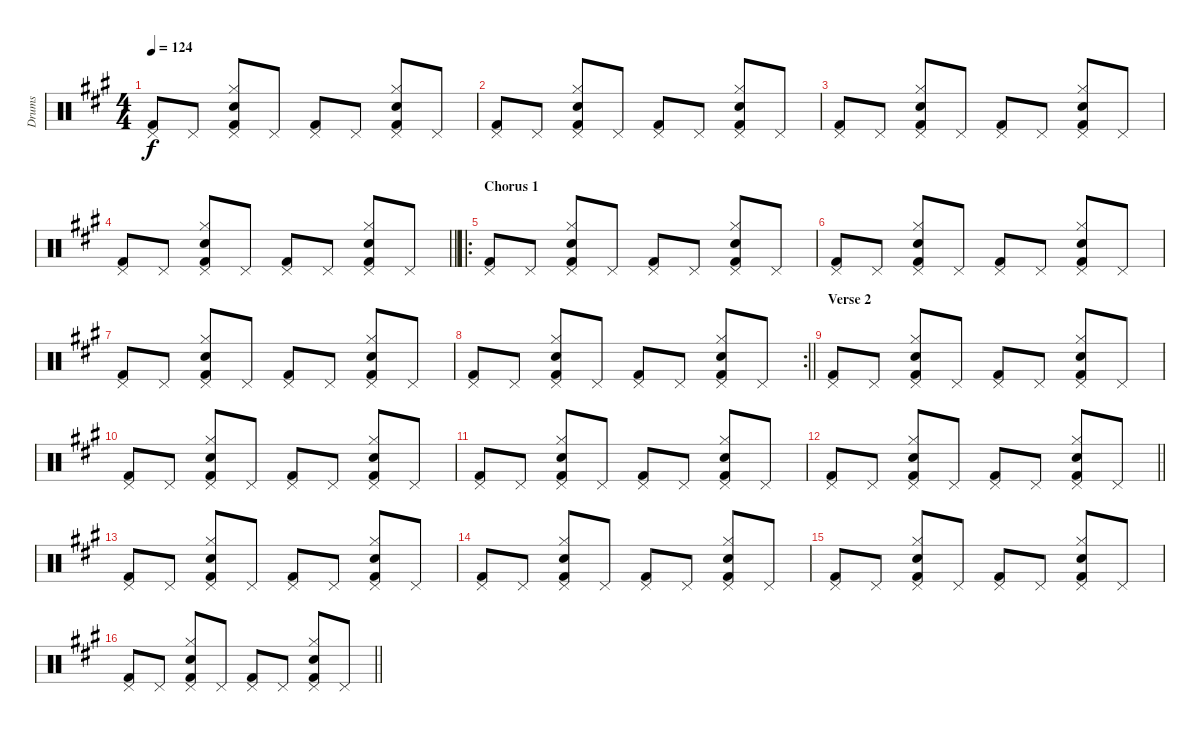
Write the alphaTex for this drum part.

\track ("Drums" "Drums") {instrument percussion}
\staff {score}
\articulation defaults
\ts (4 4)
\tempo 124
\clef neutral
\ks a
("Pedal Hi-Hat (hit)" "Kick (hit) 2").8{dy f} "Pedal Hi-Hat (hit)".8 ("Hi-Hat (closed)" "Snare (hit) 2" "Pedal Hi-Hat (hit)" "Kick (hit) 2").8 "Pedal Hi-Hat (hit)".8 ("Pedal Hi-Hat (hit)" "Kick (hit) 2").8 "Pedal Hi-Hat (hit)".8 ("Hi-Hat (closed)" "Snare (hit) 2" "Pedal Hi-Hat (hit)" "Kick (hit) 2").8 "Pedal Hi-Hat (hit)".8 |
("Pedal Hi-Hat (hit)" "Kick (hit) 2").8 "Pedal Hi-Hat (hit)".8 ("Hi-Hat (closed)" "Snare (hit) 2" "Pedal Hi-Hat (hit)" "Kick (hit) 2").8 "Pedal Hi-Hat (hit)".8 ("Pedal Hi-Hat (hit)" "Kick (hit) 2").8 "Pedal Hi-Hat (hit)".8 ("Hi-Hat (closed)" "Snare (hit) 2" "Pedal Hi-Hat (hit)" "Kick (hit) 2").8 "Pedal Hi-Hat (hit)".8 |
("Pedal Hi-Hat (hit)" "Kick (hit) 2").8 "Pedal Hi-Hat (hit)".8 ("Hi-Hat (closed)" "Snare (hit) 2" "Pedal Hi-Hat (hit)" "Kick (hit) 2").8 "Pedal Hi-Hat (hit)".8 ("Pedal Hi-Hat (hit)" "Kick (hit) 2").8 "Pedal Hi-Hat (hit)".8 ("Hi-Hat (closed)" "Snare (hit) 2" "Pedal Hi-Hat (hit)" "Kick (hit) 2").8 "Pedal Hi-Hat (hit)".8 |
\barLineRight lightlight
("Pedal Hi-Hat (hit)" "Kick (hit) 2").8 "Pedal Hi-Hat (hit)".8 ("Hi-Hat (closed)" "Snare (hit) 2" "Pedal Hi-Hat (hit)" "Kick (hit) 2").8 "Pedal Hi-Hat (hit)".8 ("Pedal Hi-Hat (hit)" "Kick (hit) 2").8 "Pedal Hi-Hat (hit)".8 ("Hi-Hat (closed)" "Snare (hit) 2" "Pedal Hi-Hat (hit)" "Kick (hit) 2").8 "Pedal Hi-Hat (hit)".8 |
\ro
\section ("" "Chorus 1")
("Pedal Hi-Hat (hit)" "Kick (hit) 2").8 "Pedal Hi-Hat (hit)".8 ("Hi-Hat (closed)" "Snare (hit) 2" "Pedal Hi-Hat (hit)" "Kick (hit) 2").8 "Pedal Hi-Hat (hit)".8 ("Pedal Hi-Hat (hit)" "Kick (hit) 2").8 "Pedal Hi-Hat (hit)".8 ("Hi-Hat (closed)" "Snare (hit) 2" "Pedal Hi-Hat (hit)" "Kick (hit) 2").8 "Pedal Hi-Hat (hit)".8 |
("Pedal Hi-Hat (hit)" "Kick (hit) 2").8 "Pedal Hi-Hat (hit)".8 ("Hi-Hat (closed)" "Snare (hit) 2" "Pedal Hi-Hat (hit)" "Kick (hit) 2").8 "Pedal Hi-Hat (hit)".8 ("Pedal Hi-Hat (hit)" "Kick (hit) 2").8 "Pedal Hi-Hat (hit)".8 ("Hi-Hat (closed)" "Snare (hit) 2" "Pedal Hi-Hat (hit)" "Kick (hit) 2").8 "Pedal Hi-Hat (hit)".8 |
("Pedal Hi-Hat (hit)" "Kick (hit) 2").8 "Pedal Hi-Hat (hit)".8 ("Hi-Hat (closed)" "Snare (hit) 2" "Pedal Hi-Hat (hit)" "Kick (hit) 2").8 "Pedal Hi-Hat (hit)".8 ("Pedal Hi-Hat (hit)" "Kick (hit) 2").8 "Pedal Hi-Hat (hit)".8 ("Hi-Hat (closed)" "Snare (hit) 2" "Pedal Hi-Hat (hit)" "Kick (hit) 2").8 "Pedal Hi-Hat (hit)".8 |
\rc 2
\barLineRight lightlight
("Pedal Hi-Hat (hit)" "Kick (hit) 2").8 "Pedal Hi-Hat (hit)".8 ("Hi-Hat (closed)" "Snare (hit) 2" "Pedal Hi-Hat (hit)" "Kick (hit) 2").8 "Pedal Hi-Hat (hit)".8 ("Pedal Hi-Hat (hit)" "Kick (hit) 2").8 "Pedal Hi-Hat (hit)".8 ("Hi-Hat (closed)" "Snare (hit) 2" "Pedal Hi-Hat (hit)" "Kick (hit) 2").8 "Pedal Hi-Hat (hit)".8 |
\section ("" "Verse 2")
("Pedal Hi-Hat (hit)" "Kick (hit) 2").8 "Pedal Hi-Hat (hit)".8 ("Hi-Hat (closed)" "Snare (hit) 2" "Pedal Hi-Hat (hit)" "Kick (hit) 2").8 "Pedal Hi-Hat (hit)".8 ("Pedal Hi-Hat (hit)" "Kick (hit) 2").8 "Pedal Hi-Hat (hit)".8 ("Hi-Hat (closed)" "Snare (hit) 2" "Pedal Hi-Hat (hit)" "Kick (hit) 2").8 "Pedal Hi-Hat (hit)".8 |
("Pedal Hi-Hat (hit)" "Kick (hit) 2").8 "Pedal Hi-Hat (hit)".8 ("Hi-Hat (closed)" "Snare (hit) 2" "Pedal Hi-Hat (hit)" "Kick (hit) 2").8 "Pedal Hi-Hat (hit)".8 ("Pedal Hi-Hat (hit)" "Kick (hit) 2").8 "Pedal Hi-Hat (hit)".8 ("Hi-Hat (closed)" "Snare (hit) 2" "Pedal Hi-Hat (hit)" "Kick (hit) 2").8 "Pedal Hi-Hat (hit)".8 |
("Pedal Hi-Hat (hit)" "Kick (hit) 2").8 "Pedal Hi-Hat (hit)".8 ("Hi-Hat (closed)" "Snare (hit) 2" "Pedal Hi-Hat (hit)" "Kick (hit) 2").8 "Pedal Hi-Hat (hit)".8 ("Pedal Hi-Hat (hit)" "Kick (hit) 2").8 "Pedal Hi-Hat (hit)".8 ("Hi-Hat (closed)" "Snare (hit) 2" "Pedal Hi-Hat (hit)" "Kick (hit) 2").8 "Pedal Hi-Hat (hit)".8 |
\barLineRight lightlight
("Pedal Hi-Hat (hit)" "Kick (hit) 2").8 "Pedal Hi-Hat (hit)".8 ("Hi-Hat (closed)" "Snare (hit) 2" "Pedal Hi-Hat (hit)" "Kick (hit) 2").8 "Pedal Hi-Hat (hit)".8 ("Pedal Hi-Hat (hit)" "Kick (hit) 2").8 "Pedal Hi-Hat (hit)".8 ("Hi-Hat (closed)" "Snare (hit) 2" "Pedal Hi-Hat (hit)" "Kick (hit) 2").8 "Pedal Hi-Hat (hit)".8 |
("Pedal Hi-Hat (hit)" "Kick (hit) 2").8 "Pedal Hi-Hat (hit)".8 ("Hi-Hat (closed)" "Snare (hit) 2" "Pedal Hi-Hat (hit)" "Kick (hit) 2").8 "Pedal Hi-Hat (hit)".8 ("Pedal Hi-Hat (hit)" "Kick (hit) 2").8 "Pedal Hi-Hat (hit)".8 ("Hi-Hat (closed)" "Snare (hit) 2" "Pedal Hi-Hat (hit)" "Kick (hit) 2").8 "Pedal Hi-Hat (hit)".8 |
("Pedal Hi-Hat (hit)" "Kick (hit) 2").8 "Pedal Hi-Hat (hit)".8 ("Hi-Hat (closed)" "Snare (hit) 2" "Pedal Hi-Hat (hit)" "Kick (hit) 2").8 "Pedal Hi-Hat (hit)".8 ("Pedal Hi-Hat (hit)" "Kick (hit) 2").8 "Pedal Hi-Hat (hit)".8 ("Hi-Hat (closed)" "Snare (hit) 2" "Pedal Hi-Hat (hit)" "Kick (hit) 2").8 "Pedal Hi-Hat (hit)".8 |
("Pedal Hi-Hat (hit)" "Kick (hit) 2").8 "Pedal Hi-Hat (hit)".8 ("Hi-Hat (closed)" "Snare (hit) 2" "Pedal Hi-Hat (hit)" "Kick (hit) 2").8 "Pedal Hi-Hat (hit)".8 ("Pedal Hi-Hat (hit)" "Kick (hit) 2").8 "Pedal Hi-Hat (hit)".8 ("Hi-Hat (closed)" "Snare (hit) 2" "Pedal Hi-Hat (hit)" "Kick (hit) 2").8 "Pedal Hi-Hat (hit)".8 |
\barLineRight lightlight
("Pedal Hi-Hat (hit)" "Kick (hit) 2").8 "Pedal Hi-Hat (hit)".8 ("Hi-Hat (closed)" "Snare (hit) 2" "Pedal Hi-Hat (hit)" "Kick (hit) 2").8 "Pedal Hi-Hat (hit)".8 ("Pedal Hi-Hat (hit)" "Kick (hit) 2").8 "Pedal Hi-Hat (hit)".8 ("Hi-Hat (closed)" "Snare (hit) 2" "Pedal Hi-Hat (hit)" "Kick (hit) 2").8 "Pedal Hi-Hat (hit)".8
